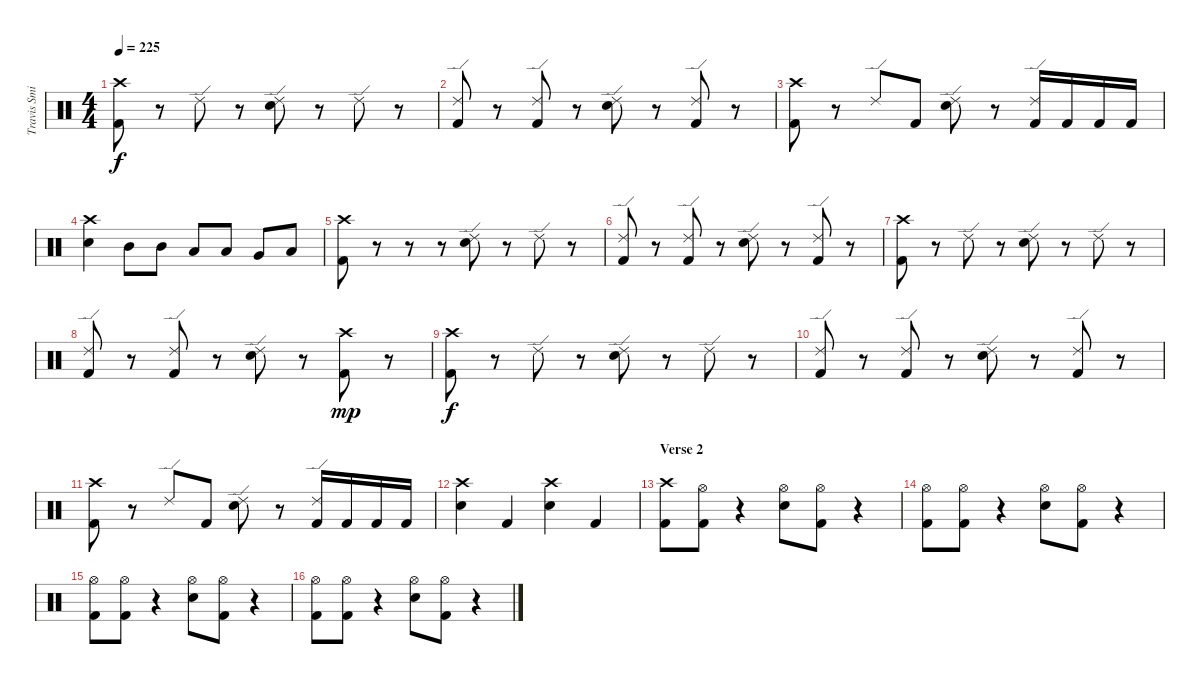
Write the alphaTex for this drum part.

\track ("Travis Smith" "Travis Smi") {instrument percussion}
\staff {score}
\articulation defaults
\ts (4 4)
\tempo 225
\clef neutral
\ks c
("Crash high (hit)" "Kick (hit) 2").8{dy f} r.8 "Ride (edge) 2".8 r.8 ("Ride (edge) 2" "Electric Snare (hit)").8 r.8 "Ride (edge) 2".8 r.8 |
("Ride (edge) 2" "Kick (hit) 2").8 r.8 ("Ride (edge) 2" "Kick (hit) 2").8 r.8 ("Ride (edge) 2" "Electric Snare (hit)").8 r.8 ("Ride (edge) 2" "Kick (hit) 2").8 r.8 |
("Crash high (hit)" "Kick (hit) 2").8 r.8 "Ride (edge) 2".8 "Kick (hit) 2".8 ("Ride (edge) 2" "Electric Snare (hit)").8 r.8 ("Ride (edge) 2" "Kick (hit) 2").16 "Kick (hit) 2".16 "Kick (hit) 2".16 "Kick (hit) 2".16 |
("Crash high (hit)" "Electric Snare (hit)").4 "Mid Tom (hit)".8 "Mid Tom (hit)".8 "Low Tom (hit)".8 "Low Tom (hit)".8 "Very Low Tom (hit)".8 "Low Floor Tom (hit)".8 |
("Crash high (hit)" "Kick (hit) 2").8 r.8 r.8 r.8 ("Ride (edge) 2" "Electric Snare (hit)").8 r.8 "Ride (edge) 2".8 r.8 |
("Ride (edge) 2" "Kick (hit) 2").8 r.8 ("Ride (edge) 2" "Kick (hit) 2").8 r.8 ("Ride (edge) 2" "Electric Snare (hit)").8 r.8 ("Ride (edge) 2" "Kick (hit) 2").8 r.8 |
("Crash high (hit)" "Kick (hit) 2").8 r.8 "Ride (edge) 2".8 r.8 ("Ride (edge) 2" "Electric Snare (hit)").8 r.8 "Ride (edge) 2".8 r.8 |
("Ride (edge) 2" "Kick (hit) 2").8 r.8 ("Ride (edge) 2" "Kick (hit) 2").8 r.8 ("Ride (edge) 2" "Electric Snare (hit)").8 r.8 ("Crash high (hit)" "Kick (hit) 2").8{dy mp} r.8 |
("Crash high (hit)" "Kick (hit) 2").8{dy f} r.8 "Ride (edge) 2".8 r.8 ("Ride (edge) 2" "Electric Snare (hit)").8 r.8 "Ride (edge) 2".8 r.8 |
("Ride (edge) 2" "Kick (hit) 2").8 r.8 ("Ride (edge) 2" "Kick (hit) 2").8 r.8 ("Ride (edge) 2" "Electric Snare (hit)").8 r.8 ("Ride (edge) 2" "Kick (hit) 2").8 r.8 |
("Crash high (hit)" "Kick (hit) 2").8 r.8 "Ride (edge) 2".8 "Kick (hit) 2".8 ("Ride (edge) 2" "Electric Snare (hit)").8 r.8 ("Ride (edge) 2" "Kick (hit) 2").16 "Kick (hit) 2".16 "Kick (hit) 2".16 "Kick (hit) 2".16 |
("Crash high (hit)" "Electric Snare (hit)").4 "Kick (hit) 2".4 ("Crash high (hit)" "Electric Snare (hit)").4 "Kick (hit) 2".4 |
\section ("" "Verse 2")
("Crash high (hit)" "Kick (hit) 2").8 ("Hi-Hat (open)" "Kick (hit) 2").8 r.4 ("Hi-Hat (open)" "Electric Snare (hit)").8 ("Hi-Hat (open)" "Kick (hit) 2").8 r.4 |
("Hi-Hat (open)" "Kick (hit) 2").8 ("Hi-Hat (open)" "Kick (hit) 2").8 r.4 ("Hi-Hat (open)" "Electric Snare (hit)").8 ("Hi-Hat (open)" "Kick (hit) 2").8 r.4 |
("Hi-Hat (open)" "Kick (hit) 2").8 ("Hi-Hat (open)" "Kick (hit) 2").8 r.4 ("Hi-Hat (open)" "Electric Snare (hit)").8 ("Hi-Hat (open)" "Kick (hit) 2").8 r.4 |
("Hi-Hat (open)" "Kick (hit) 2").8 ("Hi-Hat (open)" "Kick (hit) 2").8 r.4 ("Hi-Hat (open)" "Electric Snare (hit)").8 ("Hi-Hat (open)" "Kick (hit) 2").8 r.4
